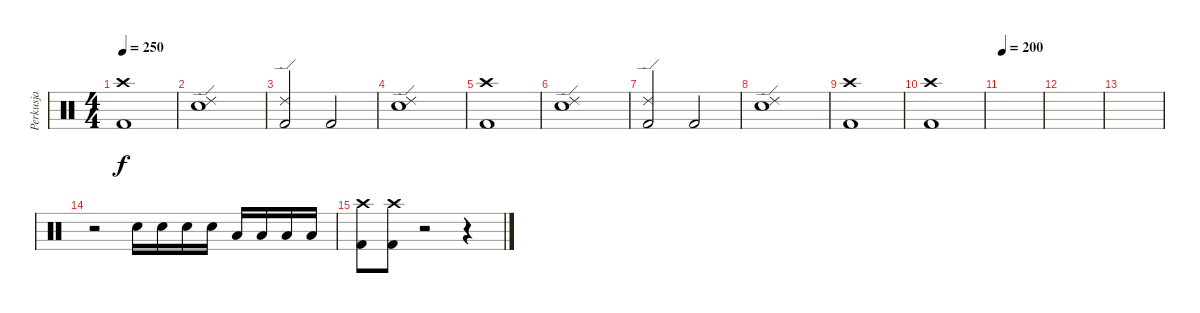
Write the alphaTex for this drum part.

\track ("Perkusja" "Perkusja") {instrument percussion}
\staff {score}
\articulation defaults
\ts (4 4)
\tempo 250
\clef neutral
\ks c
("Crash high (hit)" "Kick (hit) 2").1{dy f} |
("Ride (edge) 2" "Snare (hit) 2").1 |
("Ride (edge) 2" "Kick (hit) 2").2 "Kick (hit) 2".2 |
("Ride (edge) 2" "Snare (hit) 2").1 |
("Crash high (hit)" "Kick (hit) 2").1 |
("Ride (edge) 2" "Snare (hit) 2").1 |
("Ride (edge) 2" "Kick (hit) 2").2 "Kick (hit) 2".2 |
("Ride (edge) 2" "Snare (hit) 2").1 |
("Crash high (hit)" "Kick (hit) 2").1 |
("Crash high (hit)" "Kick (hit) 2").1 |
\tempo 200
|
|
|
r.2 "Snare (hit) 2".16 "Snare (hit) 2".16 "Snare (hit) 2".16 "Snare (hit) 2".16 "Low Tom (hit)".16 "Low Tom (hit)".16 "Low Tom (hit)".16 "Low Tom (hit)".16 |
("Crash high (hit)" "Kick (hit) 2").8 ("Crash high (hit)" "Kick (hit) 2").8 r.2 r.4
